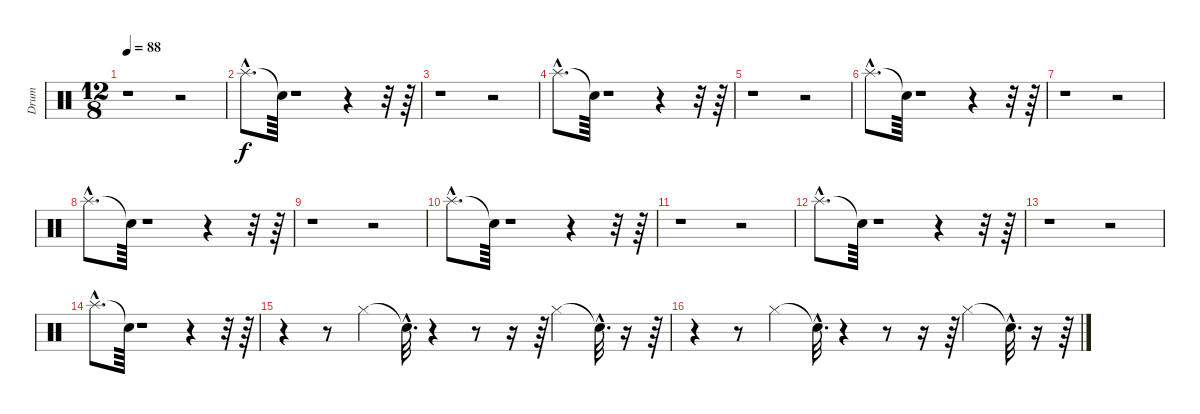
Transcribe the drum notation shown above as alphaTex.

\track ("Drum" "Drum") {instrument percussion}
\staff {score}
\articulation defaults
\ts (12 8)
\tempo 88
\clef neutral
\ks c
r.1{dy f} r.2 |
"Splash (hit)"{hac}.8{d} "Snare (hit)"{t}.64 r.1 r.4 r.32 r.64 |
r.1 r.2 |
"Splash (hit)"{hac}.8{d} "Snare (hit)"{t}.64 r.1 r.4 r.32 r.64 |
r.1 r.2 |
"Splash (hit)"{hac}.8{d} "Snare (hit)"{t}.64 r.1 r.4 r.32 r.64 |
r.1 r.2 |
"Splash (hit)"{hac}.8{d} "Snare (hit)"{t}.64 r.1 r.4 r.32 r.64 |
r.1 r.2 |
"Splash (hit)"{hac}.8{d} "Snare (hit)"{t}.64 r.1 r.4 r.32 r.64 |
r.1 r.2 |
"Splash (hit)"{hac}.8{d} "Snare (hit)"{t}.64 r.1 r.4 r.32 r.64 |
r.1 r.2 |
"Splash (hit)"{hac}.8{d} "Snare (hit)"{t}.64 r.1 r.4 r.32 r.64 |
r.4 r.8 "Hi-Hat (closed)".4 "Snare (hit)"{hac t}.32{d} r.4 r.8 r.16 r.64 "Hi-Hat (closed)".4 "Snare (hit)"{hac t}.32{d} r.16 r.64 |
r.4 r.8 "Hi-Hat (closed)".4 "Snare (hit)"{hac t}.32{d} r.4 r.8 r.16 r.64 "Hi-Hat (closed)".4 "Snare (hit)"{hac t}.32{d} r.16 r.64
